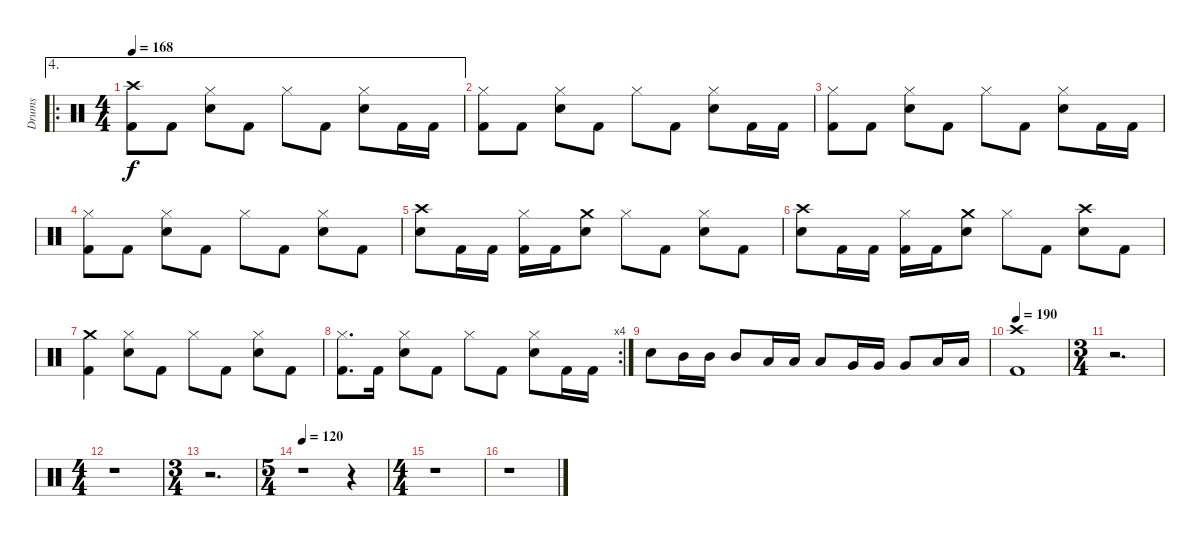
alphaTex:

\track ("Drums" "Drums") {instrument percussion}
\staff {score}
\articulation defaults
\ae 4
\ro
\ts (4 4)
\tempo 168
\clef neutral
\ks c
("Crash high (hit)" "Kick (hit) 2").8{dy f} "Kick (hit) 2".8 ("Hi-Hat (closed)" "Snare (hit) 2").8 "Kick (hit) 2".8 "Hi-Hat (closed)".8 "Kick (hit) 2".8 ("Hi-Hat (closed)" "Snare (hit) 2").8 "Kick (hit) 2".16 "Kick (hit) 2".16 |
("Hi-Hat (closed)" "Kick (hit) 2").8 "Kick (hit) 2".8 ("Hi-Hat (closed)" "Snare (hit) 2").8 "Kick (hit) 2".8 "Hi-Hat (closed)".8 "Kick (hit) 2".8 ("Hi-Hat (closed)" "Snare (hit) 2").8 "Kick (hit) 2".16 "Kick (hit) 2".16 |
("Hi-Hat (closed)" "Kick (hit) 2").8 "Kick (hit) 2".8 ("Hi-Hat (closed)" "Snare (hit) 2").8 "Kick (hit) 2".8 "Hi-Hat (closed)".8 "Kick (hit) 2".8 ("Hi-Hat (closed)" "Snare (hit) 2").8 "Kick (hit) 2".16 "Kick (hit) 2".16 |
("Hi-Hat (closed)" "Kick (hit) 2").8 "Kick (hit) 2".8 ("Hi-Hat (closed)" "Snare (hit) 2").8 "Kick (hit) 2".8 "Hi-Hat (closed)".8 "Kick (hit) 2".8 ("Hi-Hat (closed)" "Snare (hit) 2").8 "Kick (hit) 2".8 |
("Crash high (hit)" "Snare (hit) 2").8 "Kick (hit) 2".16 "Kick (hit) 2".16 ("Hi-Hat (closed)" "Kick (hit) 2").16 "Kick (hit) 2".16 ("Crash medium (hit)" "Snare (hit) 2").8 "Hi-Hat (closed)".8 "Kick (hit) 2".8 ("Hi-Hat (closed)" "Snare (hit) 2").8 "Kick (hit) 2".8 |
("Crash high (hit)" "Snare (hit) 2").8 "Kick (hit) 2".16 "Kick (hit) 2".16 ("Hi-Hat (closed)" "Kick (hit) 2").16 "Kick (hit) 2".16 ("Crash medium (hit)" "Snare (hit) 2").8 "Hi-Hat (closed)".8 "Kick (hit) 2".8 ("Crash high (hit)" "Snare (hit) 2").8 "Kick (hit) 2".8 |
("Crash medium (hit)" "Kick (hit) 2").4 ("Hi-Hat (closed)" "Snare (hit) 2").8 "Kick (hit) 2".8 "Hi-Hat (closed)".8 "Kick (hit) 2".8 ("Hi-Hat (closed)" "Snare (hit) 2").8 "Kick (hit) 2".8 |
\rc 4
("Hi-Hat (closed)" "Kick (hit) 2").8{d} "Kick (hit) 2".16 ("Hi-Hat (closed)" "Snare (hit) 2").8 "Kick (hit) 2".8 "Hi-Hat (closed)".8 "Kick (hit) 2".8 ("Hi-Hat (closed)" "Snare (hit) 2").8 "Kick (hit) 2".16 "Kick (hit) 2".16 |
"Snare (hit) 2".8 "Mid Tom (hit)".16 "Mid Tom (hit)".16 "Mid Tom (hit)".8 "Low Tom (hit)".16 "Low Tom (hit)".16 "Low Tom (hit)".8 "Very Low Tom (hit)".16 "Very Low Tom (hit)".16 "Very Low Tom (hit)".8 "Low Floor Tom (hit)".16 "Low Floor Tom (hit)".16 |
\tempo 190
("Crash high (hit)" "Kick (hit) 2").1 |
\ts (3 4)
r.2{d} |
\ts (4 4)
r.1 |
\ts (3 4)
r.2{d} |
\ts (5 4)
\tempo 120
r.1 r.4 |
\ts (4 4)
r.1 |
r.1
